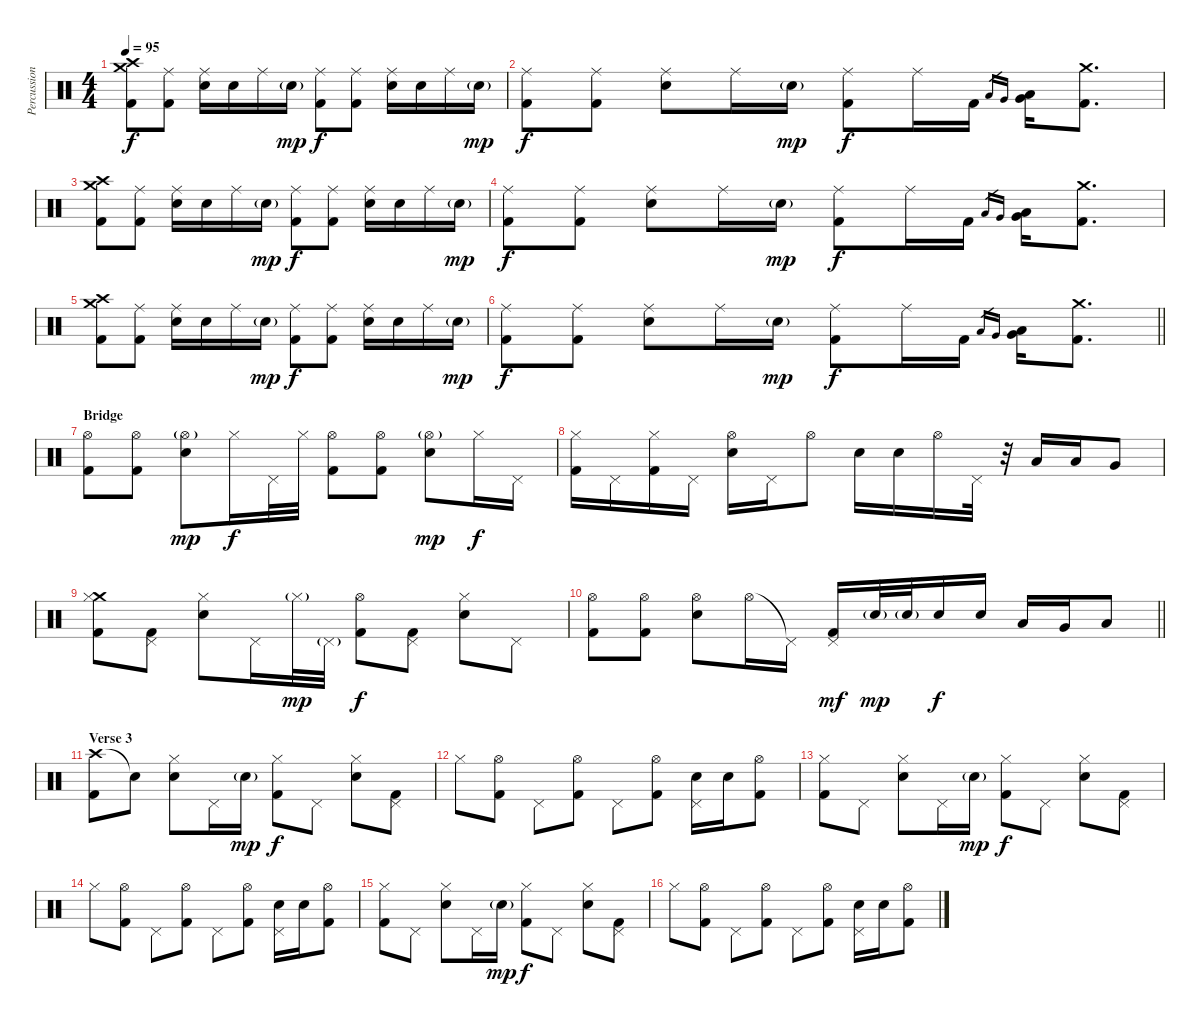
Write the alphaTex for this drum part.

\track ("Percussion" "Percussion") {instrument percussion}
\staff {score}
\articulation defaults
\ts (4 4)
\tempo 95
\clef neutral
\ks c
("Crash medium (hit)" "Crash high (hit)" "Kick (hit) 2").8{dy f} ("Ride (middle)" "Kick (hit) 2").8 ("Ride (middle)" "Snare (hit) 2").16 "Snare (hit) 2".16 "Ride (middle)".16 "Snare (hit) 2"{g}.16{dy mp} ("Ride (middle)" "Kick (hit) 2").8{dy f} ("Ride (middle)" "Kick (hit) 2").8 ("Ride (middle)" "Snare (hit) 2").16 "Snare (hit) 2".16 "Ride (middle)".16 "Snare (hit) 2"{g}.16{dy mp} |
("Ride (middle)" "Kick (hit) 2").8{dy f} ("Ride (middle)" "Kick (hit) 2").8 ("Ride (middle)" "Snare (hit) 2").8 "Ride (middle)".16 "Snare (hit) 2"{g}.16{dy mp} ("Ride (middle)" "Kick (hit) 2").8{dy f} "Ride (middle)".16 "Kick (hit) 2".16 "Low Floor Tom (hit)".16{gr} "Very Low Tom (hit)".16{gr} ("Low Floor Tom (hit)" "Very Low Tom (hit)").16 ("Crash medium (hit)" "Kick (hit) 2").8{d} |
("Crash medium (hit)" "Crash high (hit)" "Kick (hit) 2").8 ("Ride (middle)" "Kick (hit) 2").8 ("Ride (middle)" "Snare (hit) 2").16 "Snare (hit) 2".16 "Ride (middle)".16 "Snare (hit) 2"{g}.16{dy mp} ("Ride (middle)" "Kick (hit) 2").8{dy f} ("Ride (middle)" "Kick (hit) 2").8 ("Ride (middle)" "Snare (hit) 2").16 "Snare (hit) 2".16 "Ride (middle)".16 "Snare (hit) 2"{g}.16{dy mp} |
("Ride (middle)" "Kick (hit) 2").8{dy f} ("Ride (middle)" "Kick (hit) 2").8 ("Ride (middle)" "Snare (hit) 2").8 "Ride (middle)".16 "Snare (hit) 2"{g}.16{dy mp} ("Ride (middle)" "Kick (hit) 2").8{dy f} "Ride (middle)".16 "Kick (hit) 2".16 "Low Floor Tom (hit)".16{gr} "Very Low Tom (hit)".16{gr} ("Low Floor Tom (hit)" "Very Low Tom (hit)").16 ("Crash medium (hit)" "Kick (hit) 2").8{d} |
("Crash medium (hit)" "Crash high (hit)" "Kick (hit) 2").8 ("Ride (middle)" "Kick (hit) 2").8 ("Ride (middle)" "Snare (hit) 2").16 "Snare (hit) 2".16 "Ride (middle)".16 "Snare (hit) 2"{g}.16{dy mp} ("Ride (middle)" "Kick (hit) 2").8{dy f} ("Ride (middle)" "Kick (hit) 2").8 ("Ride (middle)" "Snare (hit) 2").16 "Snare (hit) 2".16 "Ride (middle)".16 "Snare (hit) 2"{g}.16{dy mp} |
\barLineRight lightlight
("Ride (middle)" "Kick (hit) 2").8{dy f} ("Ride (middle)" "Kick (hit) 2").8 ("Ride (middle)" "Snare (hit) 2").8 "Ride (middle)".16 "Snare (hit) 2"{g}.16{dy mp} ("Ride (middle)" "Kick (hit) 2").8{dy f} "Ride (middle)".16 "Kick (hit) 2".16 "Low Floor Tom (hit)".16{gr} "Very Low Tom (hit)".16{gr} ("Low Floor Tom (hit)" "Very Low Tom (hit)").16 ("Crash medium (hit)" "Kick (hit) 2").8{d} |
\section ("" "Bridge")
("Hi-Hat (open)" "Kick (hit) 2").8 ("Hi-Hat (open)" "Kick (hit) 2").8 ("Snare (hit) 2" "Hi-Hat (open)"{g}).8{dy mp} "Hi-Hat (closed)".16{dy f} "Pedal Hi-Hat (hit)".32 "Hi-Hat (closed)".32 ("Hi-Hat (open)" "Kick (hit) 2").8 ("Hi-Hat (open)" "Kick (hit) 2").8 ("Snare (hit) 2" "Hi-Hat (open)"{g}).8{dy mp} "Hi-Hat (closed)".16{dy f} "Pedal Hi-Hat (hit)".16 |
("Hi-Hat (closed)" "Kick (hit) 2").16 "Pedal Hi-Hat (hit)".16 ("Hi-Hat (closed)" "Kick (hit) 2").16 "Pedal Hi-Hat (hit)".16 ("Snare (hit) 2" "Hi-Hat (open)").16 "Pedal Hi-Hat (hit)".16 "Hi-Hat (open)".8 "Snare (hit) 2".16 "Snare (hit) 2".16 "Hi-Hat (open)".16 "Pedal Hi-Hat (hit)".32 r.32 "Low Tom (hit)".16 "Low Tom (hit)".16 "Very Low Tom (hit)".8 |
("Crash medium (hit)" "Hi-Hat (closed)" "Kick (hit) 2").8 ("Pedal Hi-Hat (hit)" "Kick (hit) 2").8 ("Snare (hit) 2" "Hi-Hat (closed)").8 "Pedal Hi-Hat (hit)".16 "Hi-Hat (closed)"{g}.32{dy mp} "Pedal Hi-Hat (hit)"{g}.32 ("Hi-Hat (open)" "Kick (hit) 2").8{dy f} ("Pedal Hi-Hat (hit)" "Kick (hit) 2").8 ("Snare (hit) 2" "Hi-Hat (closed)").8 "Pedal Hi-Hat (hit)".8 |
\barLineRight lightlight
("Hi-Hat (open)" "Kick (hit) 2").8 ("Hi-Hat (open)" "Kick (hit) 2").8 ("Snare (hit) 2" "Hi-Hat (open)").8 "Hi-Hat (open)".16 "Pedal Hi-Hat (hit)"{t}.16 ("Pedal Hi-Hat (hit)" "Kick (hit) 2").16{dy mf} "Snare (hit) 2"{g}.32{dy mp} "Snare (hit) 2"{g}.32 "Snare (hit) 2".16{dy f} "Snare (hit) 2".16 "Low Tom (hit)".16 "Very Low Tom (hit)".16 "Low Floor Tom (hit)".8 |
\section ("" "Verse 3")
("Crash high (hit)" "Kick (hit) 2").8 "Snare (hit)"{t}.8 ("Snare (hit) 2" "Hi-Hat (closed)").8 "Pedal Hi-Hat (hit)".16 "Snare (hit) 2"{g}.16{dy mp} ("Hi-Hat (closed)" "Kick (hit) 2").8{dy f} "Pedal Hi-Hat (hit)".8 ("Snare (hit) 2" "Hi-Hat (closed)").8 ("Pedal Hi-Hat (hit)" "Kick (hit) 2").8 |
"Hi-Hat (closed)".8 ("Hi-Hat (open)" "Kick (hit) 2").8 "Pedal Hi-Hat (hit)".8 ("Hi-Hat (open)" "Kick (hit) 2").8 "Pedal Hi-Hat (hit)".8 ("Hi-Hat (open)" "Kick (hit) 2").8 ("Snare (hit) 2" "Pedal Hi-Hat (hit)").16 "Snare (hit) 2".16 ("Hi-Hat (open)" "Kick (hit) 2").8 |
("Hi-Hat (closed)" "Kick (hit) 2").8 "Pedal Hi-Hat (hit)".8 ("Snare (hit) 2" "Hi-Hat (closed)").8 "Pedal Hi-Hat (hit)".16 "Snare (hit) 2"{g}.16{dy mp} ("Hi-Hat (closed)" "Kick (hit) 2").8{dy f} "Pedal Hi-Hat (hit)".8 ("Snare (hit) 2" "Hi-Hat (closed)").8 ("Pedal Hi-Hat (hit)" "Kick (hit) 2").8 |
"Hi-Hat (closed)".8 ("Hi-Hat (open)" "Kick (hit) 2").8 "Pedal Hi-Hat (hit)".8 ("Hi-Hat (open)" "Kick (hit) 2").8 "Pedal Hi-Hat (hit)".8 ("Hi-Hat (open)" "Kick (hit) 2").8 ("Snare (hit) 2" "Pedal Hi-Hat (hit)").16 "Snare (hit) 2".16 ("Hi-Hat (open)" "Kick (hit) 2").8 |
("Hi-Hat (closed)" "Kick (hit) 2").8 "Pedal Hi-Hat (hit)".8 ("Snare (hit) 2" "Hi-Hat (closed)").8 "Pedal Hi-Hat (hit)".16 "Snare (hit) 2"{g}.16{dy mp} ("Hi-Hat (closed)" "Kick (hit) 2").8{dy f} "Pedal Hi-Hat (hit)".8 ("Snare (hit) 2" "Hi-Hat (closed)").8 ("Pedal Hi-Hat (hit)" "Kick (hit) 2").8 |
"Hi-Hat (closed)".8 ("Hi-Hat (open)" "Kick (hit) 2").8 "Pedal Hi-Hat (hit)".8 ("Hi-Hat (open)" "Kick (hit) 2").8 "Pedal Hi-Hat (hit)".8 ("Hi-Hat (open)" "Kick (hit) 2").8 ("Snare (hit) 2" "Pedal Hi-Hat (hit)").16 "Snare (hit) 2".16 ("Hi-Hat (open)" "Kick (hit) 2").8
